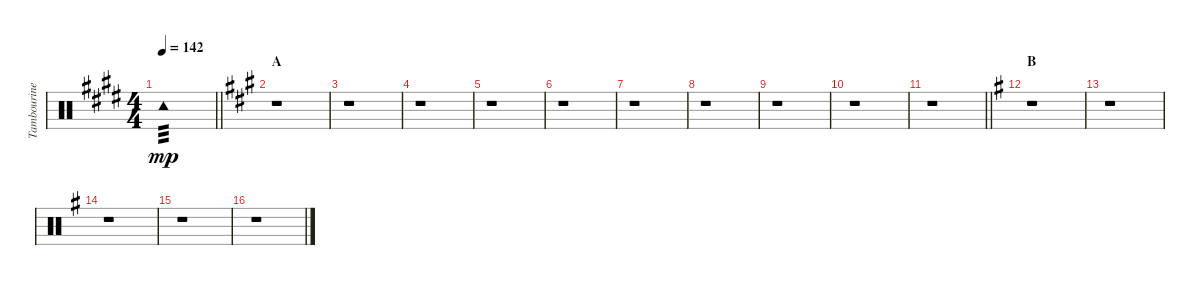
\track ("Tambourine" "Tambourine") {instrument percussion}
\staff {score}
\articulation defaults
\ts (4 4)
\tempo 142
\clef neutral
\barLineRight lightlight
\ks e "Tambourine (hit)".1{tp 3 dy mp}
|
\section ("" "A")
\ks a
r.1 |
r.1 |
r.1 |
r.1 |
r.1 |
r.1 |
r.1 |
r.1 |
r.1 |
\barLineRight lightlight
r.1 |
\section ("" "B")
\ks g
r.1 |
r.1 |
r.1 |
r.1 |
r.1
